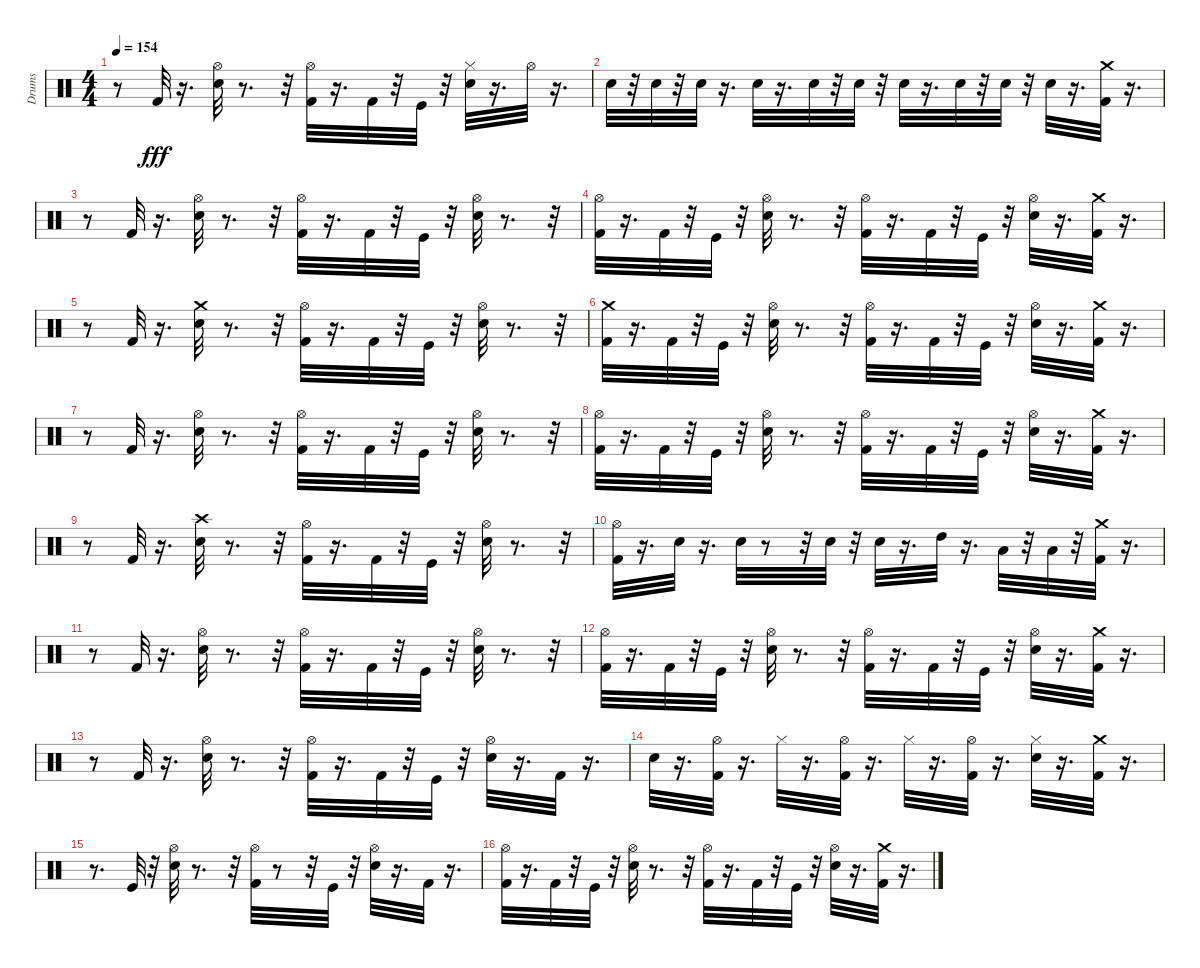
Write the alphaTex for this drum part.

\track ("Drums" "Drums") {instrument percussion}
\staff {score}
\articulation defaults
\ts (4 4)
\tempo 154
\clef neutral
\ks c
r.8{dy fff} "Kick (hit) 2".32 r.16{d} ("Snare (hit) 2" "Hi-Hat (open)").32 r.8{d} r.32 ("Kick (hit) 2" "Hi-Hat (open)").32 r.16{d} "Kick (hit) 2".32 r.32 "Kick (hit)".32 r.32 ("Snare (hit) 2" "Hi-Hat (closed)").32 r.16{d} "Hi-Hat (open)".32 r.16{d} |
"Snare (hit) 2".32 r.32 "Snare (hit) 2".32 r.32 "Snare (hit) 2".32 r.16{d} "Snare (hit) 2".32 r.16{d} "Snare (hit) 2".32 r.32 "Snare (hit) 2".32 r.32 "Snare (hit) 2".32 r.16{d} "Snare (hit) 2".32 r.32 "Snare (hit) 2".32 r.32 "Snare (hit) 2".32 r.16{d} ("Crash medium (hit)" "Kick (hit) 2").32 r.16{d} |
r.8 "Kick (hit) 2".32 r.16{d} ("Snare (hit) 2" "Hi-Hat (open)").32 r.8{d} r.32 ("Kick (hit) 2" "Hi-Hat (open)").32 r.16{d} "Kick (hit) 2".32 r.32 "Kick (hit)".32 r.32 ("Snare (hit) 2" "Hi-Hat (open)").32 r.8{d} r.32 |
("Kick (hit) 2" "Hi-Hat (open)").32 r.16{d} "Kick (hit) 2".32 r.32 "Kick (hit)".32 r.32 ("Snare (hit) 2" "Hi-Hat (open)").32 r.8{d} r.32 ("Kick (hit) 2" "Hi-Hat (open)").32 r.16{d} "Kick (hit) 2".32 r.32 "Kick (hit)".32 r.32 ("Snare (hit) 2" "Hi-Hat (open)").32 r.16{d} ("Kick (hit) 2" "Crash medium (hit)").32 r.16{d} |
r.8 "Kick (hit) 2".32 r.16{d} ("Snare (hit) 2" "Crash medium (hit)").32 r.8{d} r.32 ("Kick (hit) 2" "Hi-Hat (open)").32 r.16{d} "Kick (hit) 2".32 r.32 "Kick (hit)".32 r.32 ("Snare (hit) 2" "Hi-Hat (open)").32 r.8{d} r.32 |
("Kick (hit) 2" "Crash medium (hit)").32 r.16{d} "Kick (hit) 2".32 r.32 "Kick (hit)".32 r.32 ("Snare (hit) 2" "Hi-Hat (open)").32 r.8{d} r.32 ("Kick (hit) 2" "Hi-Hat (open)").32 r.16{d} "Kick (hit) 2".32 r.32 "Kick (hit)".32 r.32 ("Snare (hit) 2" "Hi-Hat (open)").32 r.16{d} ("Kick (hit) 2" "Crash medium (hit)").32 r.16{d} |
r.8 "Kick (hit) 2".32 r.16{d} ("Snare (hit) 2" "Hi-Hat (open)").32 r.8{d} r.32 ("Kick (hit) 2" "Hi-Hat (open)").32 r.16{d} "Kick (hit) 2".32 r.32 "Kick (hit)".32 r.32 ("Snare (hit) 2" "Hi-Hat (open)").32 r.8{d} r.32 |
("Kick (hit) 2" "Hi-Hat (open)").32 r.16{d} "Kick (hit) 2".32 r.32 "Kick (hit)".32 r.32 ("Snare (hit) 2" "Hi-Hat (open)").32 r.8{d} r.32 ("Kick (hit) 2" "Hi-Hat (open)").32 r.16{d} "Kick (hit) 2".32 r.32 "Kick (hit)".32 r.32 ("Snare (hit) 2" "Hi-Hat (open)").32 r.16{d} ("Kick (hit) 2" "Crash medium (hit)").32 r.16{d} |
r.8 "Kick (hit) 2".32 r.16{d} ("Snare (hit) 2" "Crash high (hit)").32 r.8{d} r.32 ("Kick (hit) 2" "Hi-Hat (open)").32 r.16{d} "Kick (hit) 2".32 r.32 "Kick (hit)".32 r.32 ("Snare (hit) 2" "Hi-Hat (open)").32 r.8{d} r.32 |
("Kick (hit) 2" "Hi-Hat (open)").32 r.16{d} "Snare (hit) 2".32 r.16{d} "Snare (hit) 2".32 r.8 r.32 "Snare (hit) 2".32 r.32 "Snare (hit) 2".32 r.16{d} "High Tom (hit)".32 r.16{d} "Low Tom (hit)".32 r.32 "Low Tom (hit)".32 r.32 ("Crash medium (hit)" "Kick (hit) 2").32 r.16{d} |
r.8 "Kick (hit) 2".32 r.16{d} ("Snare (hit) 2" "Hi-Hat (open)").32 r.8{d} r.32 ("Kick (hit) 2" "Hi-Hat (open)").32 r.16{d} "Kick (hit) 2".32 r.32 "Kick (hit)".32 r.32 ("Snare (hit) 2" "Hi-Hat (open)").32 r.8{d} r.32 |
("Kick (hit) 2" "Hi-Hat (open)").32 r.16{d} "Kick (hit) 2".32 r.32 "Kick (hit)".32 r.32 ("Snare (hit) 2" "Hi-Hat (open)").32 r.8{d} r.32 ("Kick (hit) 2" "Hi-Hat (open)").32 r.16{d} "Kick (hit) 2".32 r.32 "Kick (hit)".32 r.32 ("Snare (hit) 2" "Hi-Hat (open)").32 r.16{d} ("Kick (hit) 2" "Crash medium (hit)").32 r.16{d} |
r.8 "Kick (hit) 2".32 r.16{d} ("Snare (hit) 2" "Hi-Hat (open)").32 r.8{d} r.32 ("Kick (hit) 2" "Hi-Hat (open)").32 r.16{d} "Kick (hit) 2".32 r.32 "Kick (hit)".32 r.32 ("Snare (hit) 2" "Hi-Hat (open)").32 r.16{d} "Kick (hit) 2".32 r.16{d} |
"Snare (hit) 2".32 r.16{d} ("Kick (hit) 2" "Hi-Hat (open)").32 r.16{d} "Hi-Hat (closed)".32 r.16{d} ("Kick (hit) 2" "Hi-Hat (open)").32 r.16{d} "Hi-Hat (closed)".32 r.16{d} ("Kick (hit) 2" "Hi-Hat (open)").32 r.16{d} ("Snare (hit) 2" "Hi-Hat (closed)").32 r.16{d} ("Kick (hit) 2" "Crash medium (hit)").32 r.16{d} |
r.8{d} "Kick (hit)".32 r.32 ("Snare (hit) 2" "Hi-Hat (open)").32 r.8{d} r.32 ("Kick (hit) 2" "Hi-Hat (open)").32 r.8 r.32 "Kick (hit)".32 r.32 ("Snare (hit) 2" "Hi-Hat (open)").32 r.16{d} "Kick (hit) 2".32 r.16{d} |
("Kick (hit) 2" "Hi-Hat (open)").32 r.16{d} "Kick (hit) 2".32 r.32 "Kick (hit)".32 r.32 ("Snare (hit) 2" "Hi-Hat (open)").32 r.8{d} r.32 ("Kick (hit) 2" "Hi-Hat (open)").32 r.16{d} "Kick (hit) 2".32 r.32 "Kick (hit)".32 r.32 ("Snare (hit) 2" "Hi-Hat (open)").32 r.16{d} ("Kick (hit) 2" "Crash medium (hit)").32 r.16{d}
